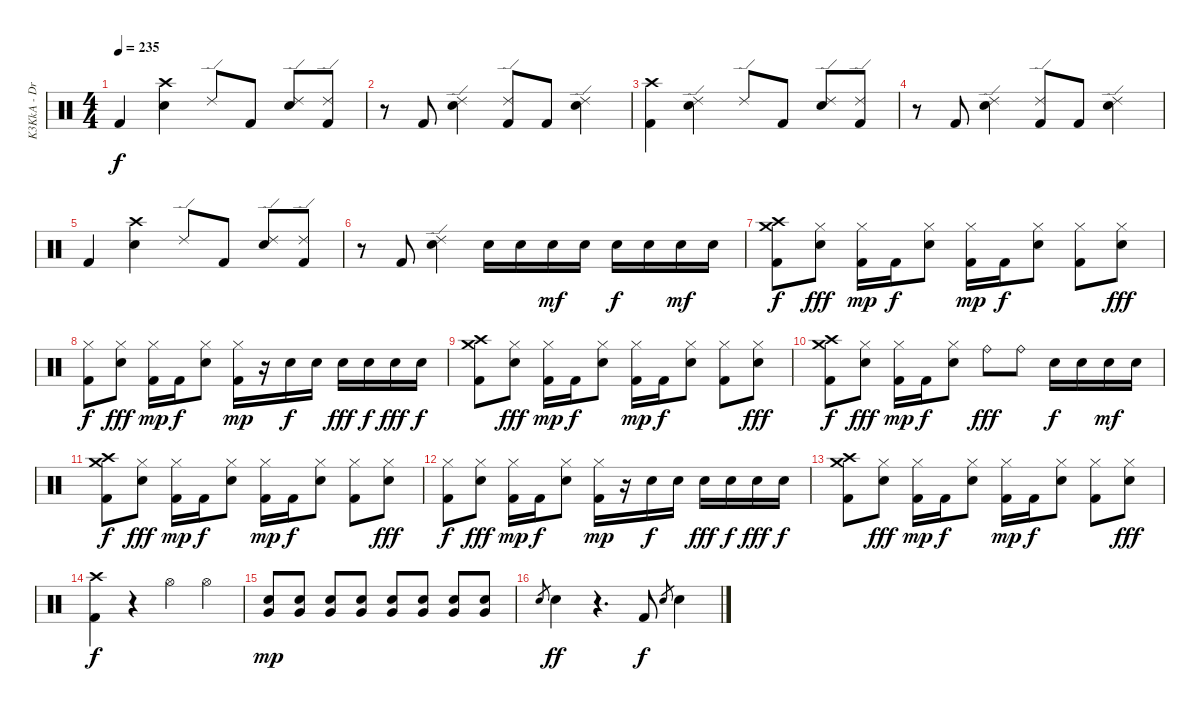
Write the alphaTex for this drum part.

\track ("K3KkA - Drums" "K3KkA - Dr") {instrument percussion}
\staff {score}
\articulation defaults
\ts (4 4)
\tempo 235
\clef neutral
\ks c "Kick (hit) 2".4{dy f}
("Crash high (hit)" "Snare (hit) 2").4 "Ride (edge) 2".8 "Kick (hit) 2".8 ("Ride (edge) 2" "Snare (hit) 2").8 ("Ride (edge) 2" "Kick (hit) 2").8 |
r.8 "Kick (hit) 2".8 ("Ride (edge) 2" "Snare (hit) 2").4 ("Ride (edge) 2" "Kick (hit) 2").8 "Kick (hit) 2".8 ("Ride (edge) 2" "Snare (hit) 2").4 |
("Crash high (hit)" "Kick (hit) 2").4 ("Ride (edge) 2" "Snare (hit) 2").4 "Ride (edge) 2".8 "Kick (hit) 2".8 ("Ride (edge) 2" "Snare (hit) 2").8 ("Ride (edge) 2" "Kick (hit) 2").8 |
r.8 "Kick (hit) 2".8 ("Ride (edge) 2" "Snare (hit) 2").4 ("Ride (edge) 2" "Kick (hit) 2").8 "Kick (hit) 2".8 ("Ride (edge) 2" "Snare (hit) 2").4 |
"Kick (hit) 2".4 ("Crash high (hit)" "Snare (hit) 2").4 "Ride (edge) 2".8 "Kick (hit) 2".8 ("Ride (edge) 2" "Snare (hit) 2").8 ("Ride (edge) 2" "Kick (hit) 2").8 |
r.8 "Kick (hit) 2".8 ("Ride (edge) 2" "Snare (hit) 2").4 "Electric Snare (hit)".16 "Electric Snare (hit)".16 "Electric Snare (hit)".16{dy mf} "Electric Snare (hit)".16 "Electric Snare (hit)".16{dy f} "Electric Snare (hit)".16 "Electric Snare (hit)".16{dy mf} "Electric Snare (hit)".16 |
("Crash medium (hit)" "Kick (hit) 2" "Crash high (hit)").8{dy f} ("Electric Snare (hit)" "Hi-Hat (closed)").8{dy fff} ("Hi-Hat (closed)" "Kick (hit) 2").16{dy mp} "Kick (hit) 2".16{dy f} ("Electric Snare (hit)" "Hi-Hat (closed)").8 ("Hi-Hat (closed)" "Kick (hit) 2").16{dy mp} "Kick (hit) 2".16{dy f} ("Electric Snare (hit)" "Hi-Hat (closed)").8 ("Kick (hit) 2" "Hi-Hat (closed)").8 ("Hi-Hat (closed)" "Electric Snare (hit)").8{dy fff} |
("Hi-Hat (closed)" "Kick (hit) 2").8{dy f} ("Electric Snare (hit)" "Hi-Hat (closed)").8{dy fff} ("Hi-Hat (closed)" "Kick (hit) 2").16{dy mp} "Kick (hit) 2".16{dy f} ("Electric Snare (hit)" "Hi-Hat (closed)").8 ("Hi-Hat (closed)" "Kick (hit) 2").16{dy mp} r.16 "Electric Snare (hit)".16{dy f} "Electric Snare (hit)".16 "Electric Snare (hit)".16{dy fff} "Electric Snare (hit)".16{dy f} "Electric Snare (hit)".16{dy fff} "Electric Snare (hit)".16{dy f} |
("Crash medium (hit)" "Kick (hit) 2" "Crash high (hit)").8 ("Electric Snare (hit)" "Hi-Hat (closed)").8{dy fff} ("Hi-Hat (closed)" "Kick (hit) 2").16{dy mp} "Kick (hit) 2".16{dy f} ("Electric Snare (hit)" "Hi-Hat (closed)").8 ("Hi-Hat (closed)" "Kick (hit) 2").16{dy mp} "Kick (hit) 2".16{dy f} ("Electric Snare (hit)" "Hi-Hat (closed)").8 ("Kick (hit) 2" "Hi-Hat (closed)").8 ("Hi-Hat (closed)" "Electric Snare (hit)").8{dy fff} |
("Crash medium (hit)" "Kick (hit) 2" "Crash high (hit)").8{dy f} ("Electric Snare (hit)" "Hi-Hat (closed)").8{dy fff} ("Hi-Hat (closed)" "Kick (hit) 2").16{dy mp} "Kick (hit) 2".16{dy f} ("Electric Snare (hit)" "Hi-Hat (closed)").8 "Ride (bell)".8{dy fff} "Ride (bell)".8 "Electric Snare (hit)".16{dy f} "Electric Snare (hit)".16 "Electric Snare (hit)".16{dy mf} "Electric Snare (hit)".16 |
("Crash medium (hit)" "Kick (hit) 2" "Crash high (hit)").8{dy f} ("Electric Snare (hit)" "Hi-Hat (closed)").8{dy fff} ("Hi-Hat (closed)" "Kick (hit) 2").16{dy mp} "Kick (hit) 2".16{dy f} ("Electric Snare (hit)" "Hi-Hat (closed)").8 ("Hi-Hat (closed)" "Kick (hit) 2").16{dy mp} "Kick (hit) 2".16{dy f} ("Electric Snare (hit)" "Hi-Hat (closed)").8 ("Kick (hit) 2" "Hi-Hat (closed)").8 ("Hi-Hat (closed)" "Electric Snare (hit)").8{dy fff} |
("Hi-Hat (closed)" "Kick (hit) 2").8{dy f} ("Electric Snare (hit)" "Hi-Hat (closed)").8{dy fff} ("Hi-Hat (closed)" "Kick (hit) 2").16{dy mp} "Kick (hit) 2".16{dy f} ("Electric Snare (hit)" "Hi-Hat (closed)").8 ("Hi-Hat (closed)" "Kick (hit) 2").16{dy mp} r.16 "Electric Snare (hit)".16{dy f} "Electric Snare (hit)".16 "Electric Snare (hit)".16{dy fff} "Electric Snare (hit)".16{dy f} "Electric Snare (hit)".16{dy fff} "Electric Snare (hit)".16{dy f} |
("Crash medium (hit)" "Kick (hit) 2" "Crash high (hit)").8 ("Electric Snare (hit)" "Hi-Hat (closed)").8{dy fff} ("Hi-Hat (closed)" "Kick (hit) 2").16{dy mp} "Kick (hit) 2".16{dy f} ("Electric Snare (hit)" "Hi-Hat (closed)").8 ("Hi-Hat (closed)" "Kick (hit) 2").16{dy mp} "Kick (hit) 2".16{dy f} ("Electric Snare (hit)" "Hi-Hat (closed)").8 ("Kick (hit) 2" "Hi-Hat (closed)").8 ("Hi-Hat (closed)" "Electric Snare (hit)").8{dy fff} |
("Crash high (hit)" "Kick (hit) 2").4{dy f volume 0} r.4 "Hi-Hat (open)".4{volume 13} "Hi-Hat (open)".4 |
("Very Low Tom (hit)" "Snare (hit) 2").8{dy mp} ("Very Low Tom (hit)" "Snare (hit) 2").8 ("Very Low Tom (hit)" "Snare (hit) 2").8 ("Very Low Tom (hit)" "Snare (hit) 2").8 ("Very Low Tom (hit)" "Snare (hit) 2").8 ("Very Low Tom (hit)" "Snare (hit) 2").8 ("Very Low Tom (hit)" "Snare (hit) 2").8 ("Very Low Tom (hit)" "Snare (hit) 2").8 |
"Snare (hit) 2".8{gr} "Snare (hit) 2".4{dy ff} r.4{d} "Kick (hit) 2".8{dy f} "Snare (hit) 2".8{gr} "Snare (hit) 2".4
